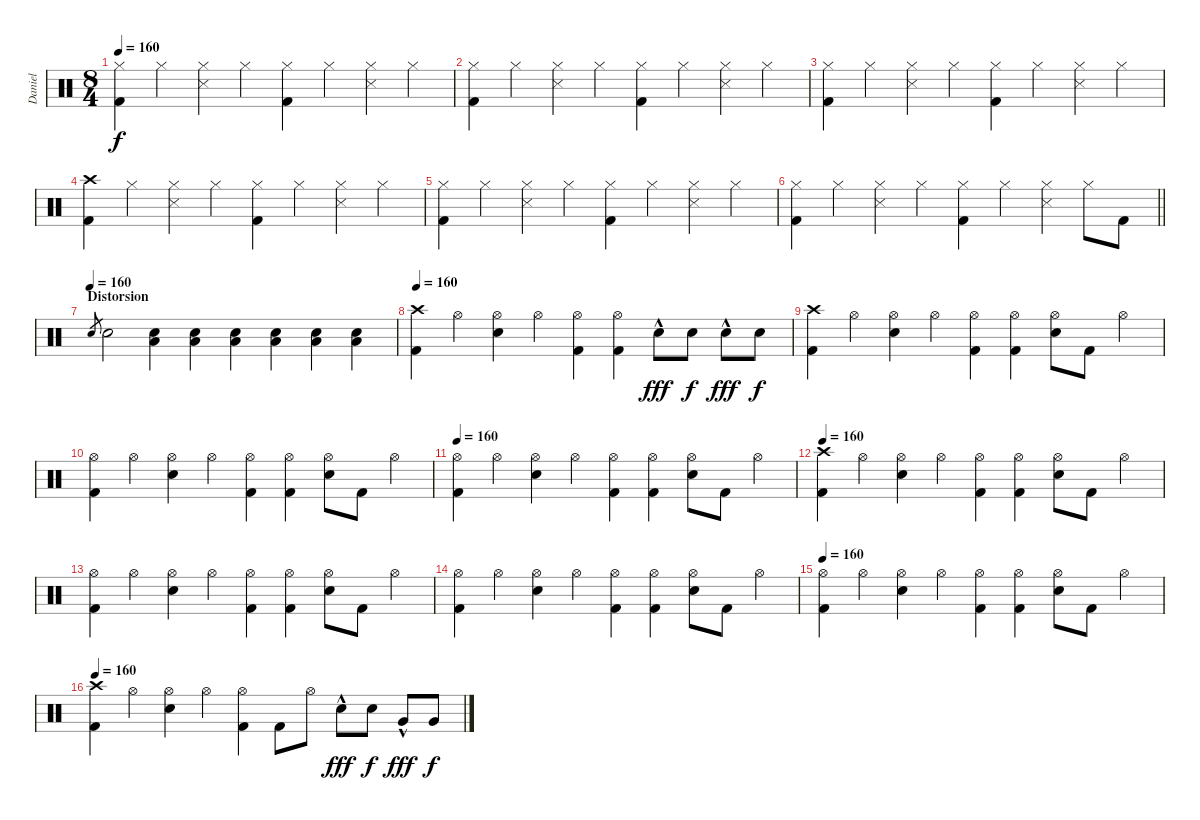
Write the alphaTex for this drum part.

\track ("Daniel" "Daniel") {instrument percussion}
\staff {score}
\articulation defaults
\ts (8 4)
\tempo 160
\clef neutral
\ks c
("Hi-Hat (closed)" "Kick (hit) 2").4{dy f} "Hi-Hat (closed)".4 ("Hi-Hat (closed)" "Snare (side stick) 3").4 "Hi-Hat (closed)".4 ("Hi-Hat (closed)" "Kick (hit) 2").4 "Hi-Hat (closed)".4 ("Hi-Hat (closed)" "Snare (side stick) 3").4 "Hi-Hat (closed)".4 |
("Hi-Hat (closed)" "Kick (hit) 2").4 "Hi-Hat (closed)".4 ("Hi-Hat (closed)" "Snare (side stick) 3").4 "Hi-Hat (closed)".4 ("Hi-Hat (closed)" "Kick (hit) 2").4 "Hi-Hat (closed)".4 ("Hi-Hat (closed)" "Snare (side stick) 3").4 "Hi-Hat (closed)".4 |
("Hi-Hat (closed)" "Kick (hit) 2").4 "Hi-Hat (closed)".4 ("Hi-Hat (closed)" "Snare (side stick) 3").4 "Hi-Hat (closed)".4 ("Hi-Hat (closed)" "Kick (hit) 2").4 "Hi-Hat (closed)".4 ("Hi-Hat (closed)" "Snare (side stick) 3").4 "Hi-Hat (closed)".4 |
("Crash high (hit)" "Kick (hit) 2").4 "Hi-Hat (closed)".4 ("Hi-Hat (closed)" "Snare (side stick) 3").4 "Hi-Hat (closed)".4 ("Hi-Hat (closed)" "Kick (hit) 2").4 "Hi-Hat (closed)".4 ("Hi-Hat (closed)" "Snare (side stick) 3").4 "Hi-Hat (closed)".4 |
("Hi-Hat (closed)" "Kick (hit) 2").4 "Hi-Hat (closed)".4 ("Hi-Hat (closed)" "Snare (side stick) 3").4 "Hi-Hat (closed)".4 ("Hi-Hat (closed)" "Kick (hit) 2").4 "Hi-Hat (closed)".4 ("Hi-Hat (closed)" "Snare (side stick) 3").4 "Hi-Hat (closed)".4 |
\barLineRight lightlight
("Hi-Hat (closed)" "Kick (hit) 2").4 "Hi-Hat (closed)".4 ("Hi-Hat (closed)" "Snare (side stick) 3").4 "Hi-Hat (closed)".4 ("Hi-Hat (closed)" "Kick (hit) 2").4 "Hi-Hat (closed)".4 ("Hi-Hat (closed)" "Snare (side stick) 3").4 "Hi-Hat (closed)".8 "Kick (hit) 2".8 |
\section ("" "Distorsion")
\tempo (160)
"Snare (hit) 2".8{gr} "Snare (hit) 2".2 ("Low Floor Tom (hit)" "Snare (hit) 2").4 ("Low Floor Tom (hit)" "Snare (hit) 2").4 ("Low Floor Tom (hit)" "Snare (hit) 2").4 ("Low Floor Tom (hit)" "Snare (hit) 2").4 ("Low Floor Tom (hit)" "Snare (hit) 2").4 ("Low Floor Tom (hit)" "Snare (hit) 2").4 |
\tempo 160
("Crash high (hit)" "Kick (hit) 2").4 "Hi-Hat (open)".4 ("Hi-Hat (open)" "Snare (hit) 2").4 "Hi-Hat (open)".4 ("Hi-Hat (open)" "Kick (hit) 2").4 ("Hi-Hat (open)" "Kick (hit) 2").4 "Snare (hit) 2"{hac}.8{dy fff} "Snare (hit) 2".8{dy f} "Snare (hit) 2"{hac}.8{dy fff} "Snare (hit) 2".8{dy f} |
("Crash high (hit)" "Kick (hit) 2").4 "Hi-Hat (open)".4 ("Hi-Hat (open)" "Snare (hit) 2").4 "Hi-Hat (open)".4 ("Hi-Hat (open)" "Kick (hit) 2").4 ("Hi-Hat (open)" "Kick (hit) 2").4 ("Hi-Hat (open)" "Snare (hit) 2").8 "Kick (hit) 2".8 "Hi-Hat (open)".4 |
("Hi-Hat (open)" "Kick (hit) 2").4 "Hi-Hat (open)".4 ("Hi-Hat (open)" "Snare (hit) 2").4 "Hi-Hat (open)".4 ("Hi-Hat (open)" "Kick (hit) 2").4 ("Hi-Hat (open)" "Kick (hit) 2").4 ("Hi-Hat (open)" "Snare (hit) 2").8 "Kick (hit) 2".8 "Hi-Hat (open)".4 |
\tempo 160
("Hi-Hat (open)" "Kick (hit) 2").4 "Hi-Hat (open)".4 ("Hi-Hat (open)" "Snare (hit) 2").4 "Hi-Hat (open)".4 ("Hi-Hat (open)" "Kick (hit) 2").4 ("Hi-Hat (open)" "Kick (hit) 2").4 ("Hi-Hat (open)" "Snare (hit) 2").8 "Kick (hit) 2".8 "Hi-Hat (open)".4 |
\tempo 160
("Crash high (hit)" "Kick (hit) 2").4 "Hi-Hat (open)".4 ("Hi-Hat (open)" "Snare (hit) 2").4 "Hi-Hat (open)".4 ("Hi-Hat (open)" "Kick (hit) 2").4 ("Hi-Hat (open)" "Kick (hit) 2").4 ("Hi-Hat (open)" "Snare (hit) 2").8 "Kick (hit) 2".8 "Hi-Hat (open)".4 |
("Hi-Hat (open)" "Kick (hit) 2").4 "Hi-Hat (open)".4 ("Hi-Hat (open)" "Snare (hit) 2").4 "Hi-Hat (open)".4 ("Hi-Hat (open)" "Kick (hit) 2").4 ("Hi-Hat (open)" "Kick (hit) 2").4 ("Hi-Hat (open)" "Snare (hit) 2").8 "Kick (hit) 2".8 "Hi-Hat (open)".4 |
("Hi-Hat (open)" "Kick (hit) 2").4 "Hi-Hat (open)".4 ("Hi-Hat (open)" "Snare (hit) 2").4 "Hi-Hat (open)".4 ("Hi-Hat (open)" "Kick (hit) 2").4 ("Hi-Hat (open)" "Kick (hit) 2").4 ("Hi-Hat (open)" "Snare (hit) 2").8 "Kick (hit) 2".8 "Hi-Hat (open)".4 |
\tempo 160
("Hi-Hat (open)" "Kick (hit) 2").4 "Hi-Hat (open)".4 ("Hi-Hat (open)" "Snare (hit) 2").4 "Hi-Hat (open)".4 ("Hi-Hat (open)" "Kick (hit) 2").4 ("Hi-Hat (open)" "Kick (hit) 2").4 ("Hi-Hat (open)" "Snare (hit) 2").8 "Kick (hit) 2".8 "Hi-Hat (open)".4 |
\tempo 160
("Crash high (hit)" "Kick (hit) 2").4 "Hi-Hat (open)".4 ("Hi-Hat (open)" "Snare (hit) 2").4 "Hi-Hat (open)".4 ("Hi-Hat (open)" "Kick (hit) 2").4 "Kick (hit) 2".8 "Hi-Hat (open)".8 "Snare (hit) 2"{hac}.8{dy fff} "Snare (hit) 2".8{dy f} "Very Low Tom (hit)"{hac}.8{dy fff} "Very Low Tom (hit)".8{dy f}
